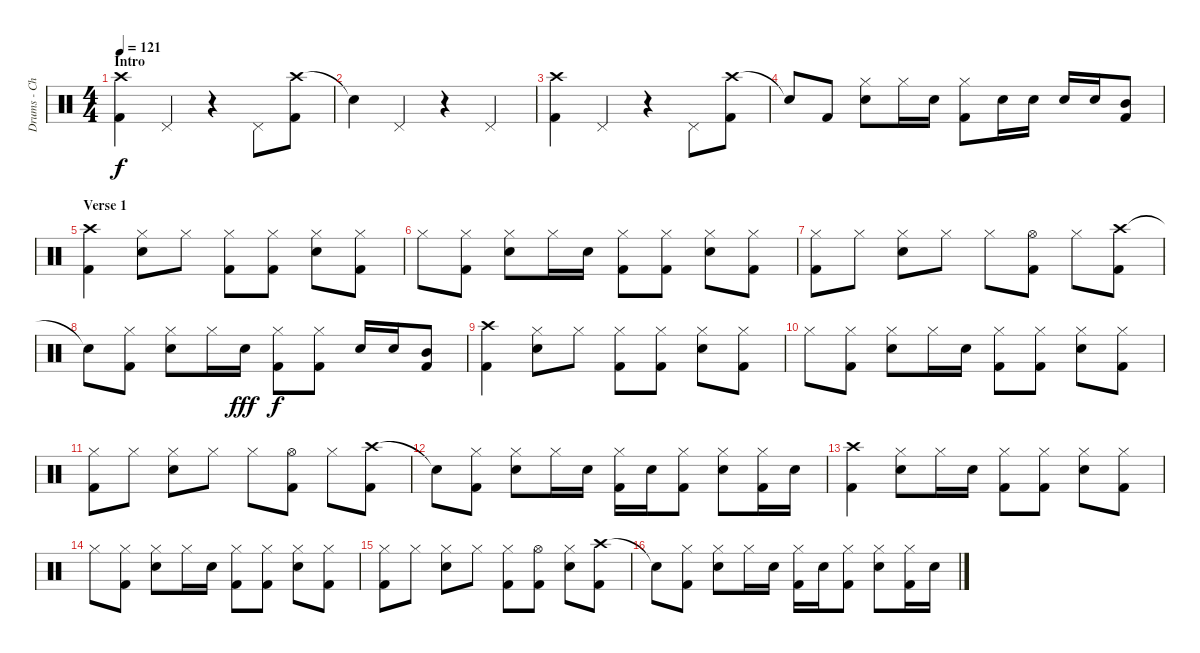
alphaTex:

\track ("Drums - Chad" "Drums - Ch") {instrument percussion}
\staff {score}
\articulation defaults
\ts (4 4)
\section ("" "Intro")
\tempo 121
\clef neutral
\ks c
("Crash high (hit)" "Kick (hit) 2").4{dy f} "Pedal Hi-Hat (hit)".4 r.4 "Pedal Hi-Hat (hit)".8 ("Crash high (hit)" "Kick (hit) 2").8 |
"Snare (hit)"{t}.4 "Pedal Hi-Hat (hit)".4 r.4 "Pedal Hi-Hat (hit)".4 |
("Crash high (hit)" "Kick (hit) 2").4 "Pedal Hi-Hat (hit)".4 r.4 "Pedal Hi-Hat (hit)".8 ("Crash high (hit)" "Kick (hit) 2").8 |
"Snare (hit)"{t}.8 "Kick (hit) 2".8 ("Hi-Hat (closed)" "Electric Snare (hit)").8 "Hi-Hat (closed)".16 "Electric Snare (hit)".16 ("Hi-Hat (closed)" "Kick (hit) 2").8 "Electric Snare (hit)".16 "Electric Snare (hit)".16 "Electric Snare (hit)".16 "Electric Snare (hit)".16 ("Mid Tom (hit)" "Kick (hit) 2").8 |
\section ("" "Verse 1")
("Crash high (hit)" "Kick (hit) 2").4 ("Hi-Hat (closed)" "Electric Snare (hit)").8 "Hi-Hat (closed)".8 ("Hi-Hat (closed)" "Kick (hit) 2").8 ("Hi-Hat (closed)" "Kick (hit) 2").8 ("Hi-Hat (closed)" "Electric Snare (hit)").8 ("Hi-Hat (closed)" "Kick (hit) 2").8 |
"Hi-Hat (closed)".8 ("Hi-Hat (closed)" "Kick (hit) 2").8 ("Hi-Hat (closed)" "Electric Snare (hit)").8 "Hi-Hat (closed)".16 "Electric Snare (hit)".16 ("Hi-Hat (closed)" "Kick (hit) 2").8 ("Hi-Hat (closed)" "Kick (hit) 2").8 ("Hi-Hat (closed)" "Electric Snare (hit)").8 ("Hi-Hat (closed)" "Kick (hit) 2").8 |
("Hi-Hat (closed)" "Kick (hit) 2").8 "Hi-Hat (closed)".8 ("Hi-Hat (closed)" "Electric Snare (hit)").8 "Hi-Hat (closed)".8 "Hi-Hat (closed)".8 ("Hi-Hat (open)" "Kick (hit) 2").8 "Hi-Hat (closed)".8 ("Crash high (hit)" "Kick (hit) 2").8 |
"Snare (hit)"{t}.8 ("Hi-Hat (closed)" "Kick (hit) 2").8 ("Hi-Hat (closed)" "Electric Snare (hit)").8 "Hi-Hat (closed)".16 "Electric Snare (hit)".16{dy fff} ("Hi-Hat (closed)" "Kick (hit) 2").8{dy f} ("Hi-Hat (closed)" "Kick (hit) 2").8 "Electric Snare (hit)".16 "Electric Snare (hit)".16 ("Mid Tom (hit)" "Kick (hit) 2").8 |
("Crash high (hit)" "Kick (hit) 2").4 ("Hi-Hat (closed)" "Electric Snare (hit)").8 "Hi-Hat (closed)".8 ("Hi-Hat (closed)" "Kick (hit) 2").8 ("Hi-Hat (closed)" "Kick (hit) 2").8 ("Hi-Hat (closed)" "Electric Snare (hit)").8 ("Hi-Hat (closed)" "Kick (hit) 2").8 |
"Hi-Hat (closed)".8 ("Hi-Hat (closed)" "Kick (hit) 2").8 ("Hi-Hat (closed)" "Electric Snare (hit)").8 "Hi-Hat (closed)".16 "Electric Snare (hit)".16 ("Hi-Hat (closed)" "Kick (hit) 2").8 ("Hi-Hat (closed)" "Kick (hit) 2").8 ("Hi-Hat (closed)" "Electric Snare (hit)").8 ("Hi-Hat (closed)" "Kick (hit) 2").8 |
("Hi-Hat (closed)" "Kick (hit) 2").8 "Hi-Hat (closed)".8 ("Hi-Hat (closed)" "Electric Snare (hit)").8 "Hi-Hat (closed)".8 "Hi-Hat (closed)".8 ("Hi-Hat (open)" "Kick (hit) 2").8 "Hi-Hat (closed)".8 ("Crash high (hit)" "Kick (hit) 2").8 |
"Snare (hit)"{t}.8 ("Hi-Hat (closed)" "Kick (hit) 2").8 ("Hi-Hat (closed)" "Electric Snare (hit)").8 "Hi-Hat (closed)".16 "Electric Snare (hit)".16 ("Hi-Hat (closed)" "Kick (hit) 2").16 "Electric Snare (hit)".16 ("Hi-Hat (closed)" "Kick (hit) 2").8 ("Hi-Hat (closed)" "Electric Snare (hit)").8 ("Hi-Hat (closed)" "Kick (hit) 2").16 "Electric Snare (hit)".16 |
("Crash high (hit)" "Kick (hit) 2").4 ("Hi-Hat (closed)" "Electric Snare (hit)").8 "Hi-Hat (closed)".16 "Electric Snare (hit)".16 ("Hi-Hat (closed)" "Kick (hit) 2").8 ("Hi-Hat (closed)" "Kick (hit) 2").8 ("Hi-Hat (closed)" "Electric Snare (hit)").8 ("Hi-Hat (closed)" "Kick (hit) 2").8 |
"Hi-Hat (closed)".8 ("Hi-Hat (closed)" "Kick (hit) 2").8 ("Hi-Hat (closed)" "Electric Snare (hit)").8 "Hi-Hat (closed)".16 "Electric Snare (hit)".16 ("Hi-Hat (closed)" "Kick (hit) 2").8 ("Hi-Hat (closed)" "Kick (hit) 2").8 ("Hi-Hat (closed)" "Electric Snare (hit)").8 ("Hi-Hat (closed)" "Kick (hit) 2").8 |
("Hi-Hat (closed)" "Kick (hit) 2").8 "Hi-Hat (closed)".8 ("Hi-Hat (closed)" "Electric Snare (hit)").8 "Hi-Hat (closed)".8 ("Hi-Hat (closed)" "Kick (hit) 2").8 ("Hi-Hat (open)" "Kick (hit) 2").8 ("Hi-Hat (closed)" "Electric Snare (hit)").8 ("Crash high (hit)" "Kick (hit) 2").8 |
"Snare (hit)"{t}.8 ("Hi-Hat (closed)" "Kick (hit) 2").8 ("Hi-Hat (closed)" "Electric Snare (hit)").8 "Hi-Hat (closed)".16 "Electric Snare (hit)".16 ("Hi-Hat (closed)" "Kick (hit) 2").16 "Electric Snare (hit)".16 ("Hi-Hat (closed)" "Kick (hit) 2").8 ("Hi-Hat (closed)" "Electric Snare (hit)").8 ("Hi-Hat (closed)" "Kick (hit) 2").16 "Electric Snare (hit)".16
